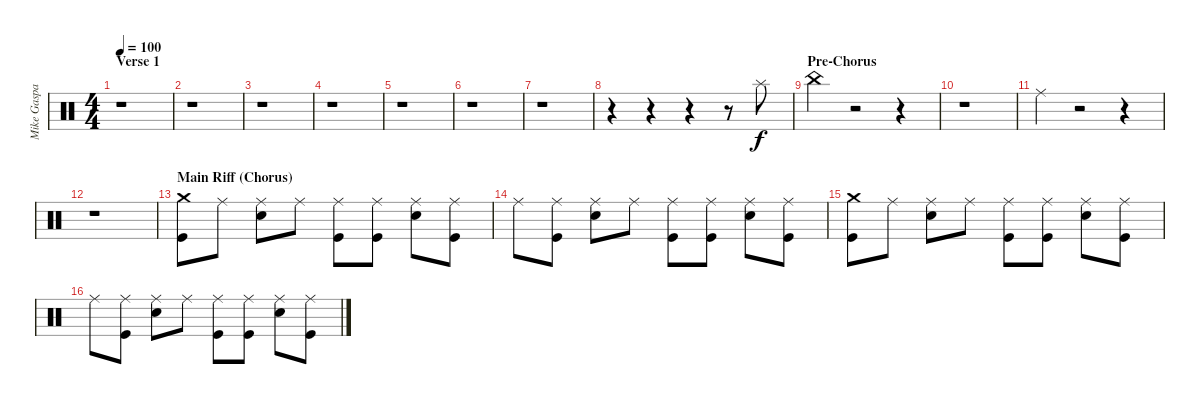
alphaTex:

\track ("Mike Gaspar" "Mike Gaspa") {instrument percussion}
\staff {score}
\articulation defaults
\ts (4 4)
\section ("" "Verse 1")
\tempo 100
\clef neutral
\ks c
r.1{dy f} |
r.1 |
r.1 |
r.1 |
r.1 |
r.1 |
r.1 |
r.4 r.4 r.4 r.8 "Splash (hit)".8 |
\section ("" "Pre-Chorus")
"China (hit)".4 r.2 r.4 |
r.1 |
"Ride (middle)".4 r.2 r.4 |
r.1 |
\section ("" "Main Riff (Chorus)")
("Crash medium (hit)" "Kick (hit)").8 "Ride (middle)".8 ("Ride (middle)" "Electric Snare (hit)").8 "Ride (middle)".8 ("Ride (middle)" "Kick (hit)").8 ("Ride (middle)" "Kick (hit)").8 ("Ride (middle)" "Electric Snare (hit)").8 ("Ride (middle)" "Kick (hit)").8 |
"Ride (middle)".8 ("Ride (middle)" "Kick (hit)").8 ("Ride (middle)" "Electric Snare (hit)").8 "Ride (middle)".8 ("Ride (middle)" "Kick (hit)").8 ("Ride (middle)" "Kick (hit)").8 ("Ride (middle)" "Electric Snare (hit)").8 ("Ride (middle)" "Kick (hit)").8 |
("Crash medium (hit)" "Kick (hit)").8 "Ride (middle)".8 ("Ride (middle)" "Electric Snare (hit)").8 "Ride (middle)".8 ("Ride (middle)" "Kick (hit)").8 ("Ride (middle)" "Kick (hit)").8 ("Ride (middle)" "Electric Snare (hit)").8 ("Ride (middle)" "Kick (hit)").8 |
"Ride (middle)".8 ("Ride (middle)" "Kick (hit)").8 ("Ride (middle)" "Electric Snare (hit)").8 "Ride (middle)".8 ("Ride (middle)" "Kick (hit)").8 ("Ride (middle)" "Kick (hit)").8 ("Ride (middle)" "Electric Snare (hit)").8 ("Ride (middle)" "Kick (hit)").8
